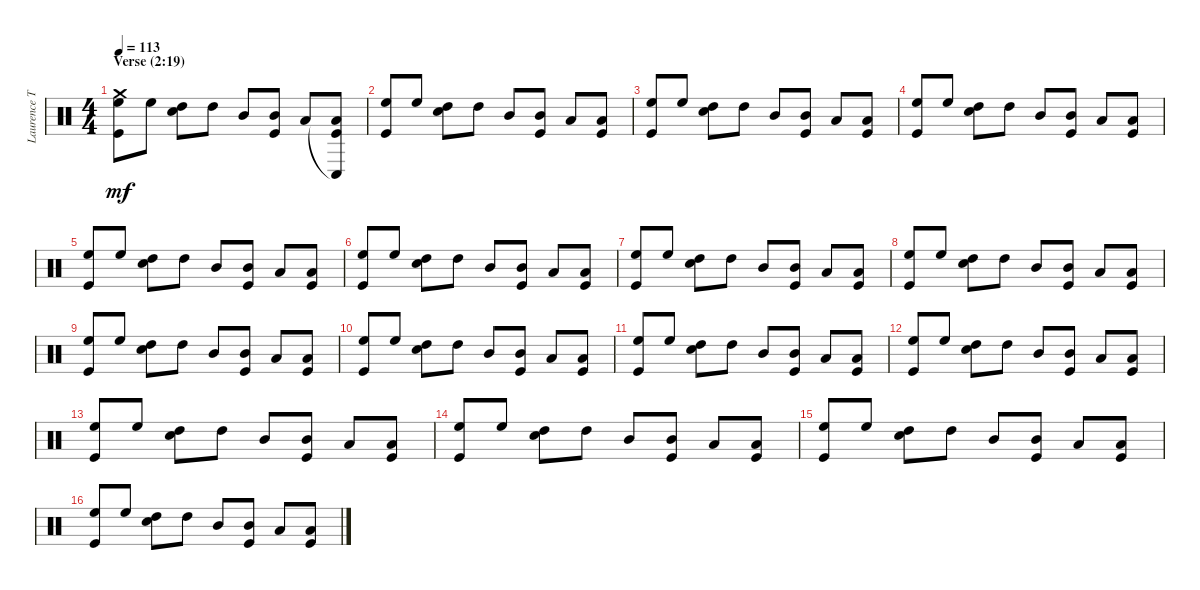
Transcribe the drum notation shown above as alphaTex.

\track ("Laurence Tolhurst (drums)" "Laurence T") {instrument percussion}
\staff {score}
\articulation defaults
\ts (4 4)
\section ("" "Verse (2:19)")
\tempo 113
\clef neutral
\ks c
("Crash medium (hit)" "High Floor Tom (hit)" "Kick (hit)").8{dy mf} "High Floor Tom (hit)".8 ("High Tom (hit)" "Snare (hit) 2").8 "High Tom (hit)".8 "Mid Tom (hit)".8 ("Mid Tom (hit)" "Kick (hit)").8 "Low Tom (hit)".8 ("Conga low (hit)"{t} "Low Tom (hit)" "Kick (hit)").8 |
("High Floor Tom (hit)" "Kick (hit)").8 "High Floor Tom (hit)".8 ("High Tom (hit)" "Snare (hit) 2").8 "High Tom (hit)".8 "Mid Tom (hit)".8 ("Mid Tom (hit)" "Kick (hit)").8 "Low Tom (hit)".8 ("Low Tom (hit)" "Kick (hit)").8 |
("High Floor Tom (hit)" "Kick (hit)").8 "High Floor Tom (hit)".8 ("High Tom (hit)" "Snare (hit) 2").8 "High Tom (hit)".8 "Mid Tom (hit)".8 ("Mid Tom (hit)" "Kick (hit)").8 "Low Tom (hit)".8 ("Low Tom (hit)" "Kick (hit)").8 |
("High Floor Tom (hit)" "Kick (hit)").8 "High Floor Tom (hit)".8 ("High Tom (hit)" "Snare (hit) 2").8 "High Tom (hit)".8 "Mid Tom (hit)".8 ("Mid Tom (hit)" "Kick (hit)").8 "Low Tom (hit)".8 ("Low Tom (hit)" "Kick (hit)").8 |
("High Floor Tom (hit)" "Kick (hit)").8 "High Floor Tom (hit)".8 ("High Tom (hit)" "Snare (hit) 2").8 "High Tom (hit)".8 "Mid Tom (hit)".8 ("Mid Tom (hit)" "Kick (hit)").8 "Low Tom (hit)".8 ("Low Tom (hit)" "Kick (hit)").8 |
("High Floor Tom (hit)" "Kick (hit)").8 "High Floor Tom (hit)".8 ("High Tom (hit)" "Snare (hit) 2").8 "High Tom (hit)".8 "Mid Tom (hit)".8 ("Mid Tom (hit)" "Kick (hit)").8 "Low Tom (hit)".8 ("Low Tom (hit)" "Kick (hit)").8 |
("High Floor Tom (hit)" "Kick (hit)").8 "High Floor Tom (hit)".8 ("High Tom (hit)" "Snare (hit) 2").8 "High Tom (hit)".8 "Mid Tom (hit)".8 ("Mid Tom (hit)" "Kick (hit)").8 "Low Tom (hit)".8 ("Low Tom (hit)" "Kick (hit)").8 |
("High Floor Tom (hit)" "Kick (hit)").8 "High Floor Tom (hit)".8 ("High Tom (hit)" "Snare (hit) 2").8 "High Tom (hit)".8 "Mid Tom (hit)".8 ("Mid Tom (hit)" "Kick (hit)").8 "Low Tom (hit)".8 ("Low Tom (hit)" "Kick (hit)").8 |
("High Floor Tom (hit)" "Kick (hit)").8 "High Floor Tom (hit)".8 ("High Tom (hit)" "Snare (hit) 2").8 "High Tom (hit)".8 "Mid Tom (hit)".8 ("Mid Tom (hit)" "Kick (hit)").8 "Low Tom (hit)".8 ("Low Tom (hit)" "Kick (hit)").8 |
("High Floor Tom (hit)" "Kick (hit)").8 "High Floor Tom (hit)".8 ("High Tom (hit)" "Snare (hit) 2").8 "High Tom (hit)".8 "Mid Tom (hit)".8 ("Mid Tom (hit)" "Kick (hit)").8 "Low Tom (hit)".8 ("Low Tom (hit)" "Kick (hit)").8 |
("High Floor Tom (hit)" "Kick (hit)").8 "High Floor Tom (hit)".8 ("High Tom (hit)" "Snare (hit) 2").8 "High Tom (hit)".8 "Mid Tom (hit)".8 ("Mid Tom (hit)" "Kick (hit)").8 "Low Tom (hit)".8 ("Low Tom (hit)" "Kick (hit)").8 |
("High Floor Tom (hit)" "Kick (hit)").8 "High Floor Tom (hit)".8 ("High Tom (hit)" "Snare (hit) 2").8 "High Tom (hit)".8 "Mid Tom (hit)".8 ("Mid Tom (hit)" "Kick (hit)").8 "Low Tom (hit)".8 ("Low Tom (hit)" "Kick (hit)").8 |
("High Floor Tom (hit)" "Kick (hit)").8 "High Floor Tom (hit)".8 ("High Tom (hit)" "Snare (hit) 2").8 "High Tom (hit)".8 "Mid Tom (hit)".8 ("Mid Tom (hit)" "Kick (hit)").8 "Low Tom (hit)".8 ("Low Tom (hit)" "Kick (hit)").8 |
("High Floor Tom (hit)" "Kick (hit)").8 "High Floor Tom (hit)".8 ("High Tom (hit)" "Snare (hit) 2").8 "High Tom (hit)".8 "Mid Tom (hit)".8 ("Mid Tom (hit)" "Kick (hit)").8 "Low Tom (hit)".8 ("Low Tom (hit)" "Kick (hit)").8 |
("High Floor Tom (hit)" "Kick (hit)").8 "High Floor Tom (hit)".8 ("High Tom (hit)" "Snare (hit) 2").8 "High Tom (hit)".8 "Mid Tom (hit)".8 ("Mid Tom (hit)" "Kick (hit)").8 "Low Tom (hit)".8 ("Low Tom (hit)" "Kick (hit)").8 |
("High Floor Tom (hit)" "Kick (hit)").8 "High Floor Tom (hit)".8 ("High Tom (hit)" "Snare (hit) 2").8 "High Tom (hit)".8 "Mid Tom (hit)".8 ("Mid Tom (hit)" "Kick (hit)").8 "Low Tom (hit)".8 ("Low Tom (hit)" "Kick (hit)").8
